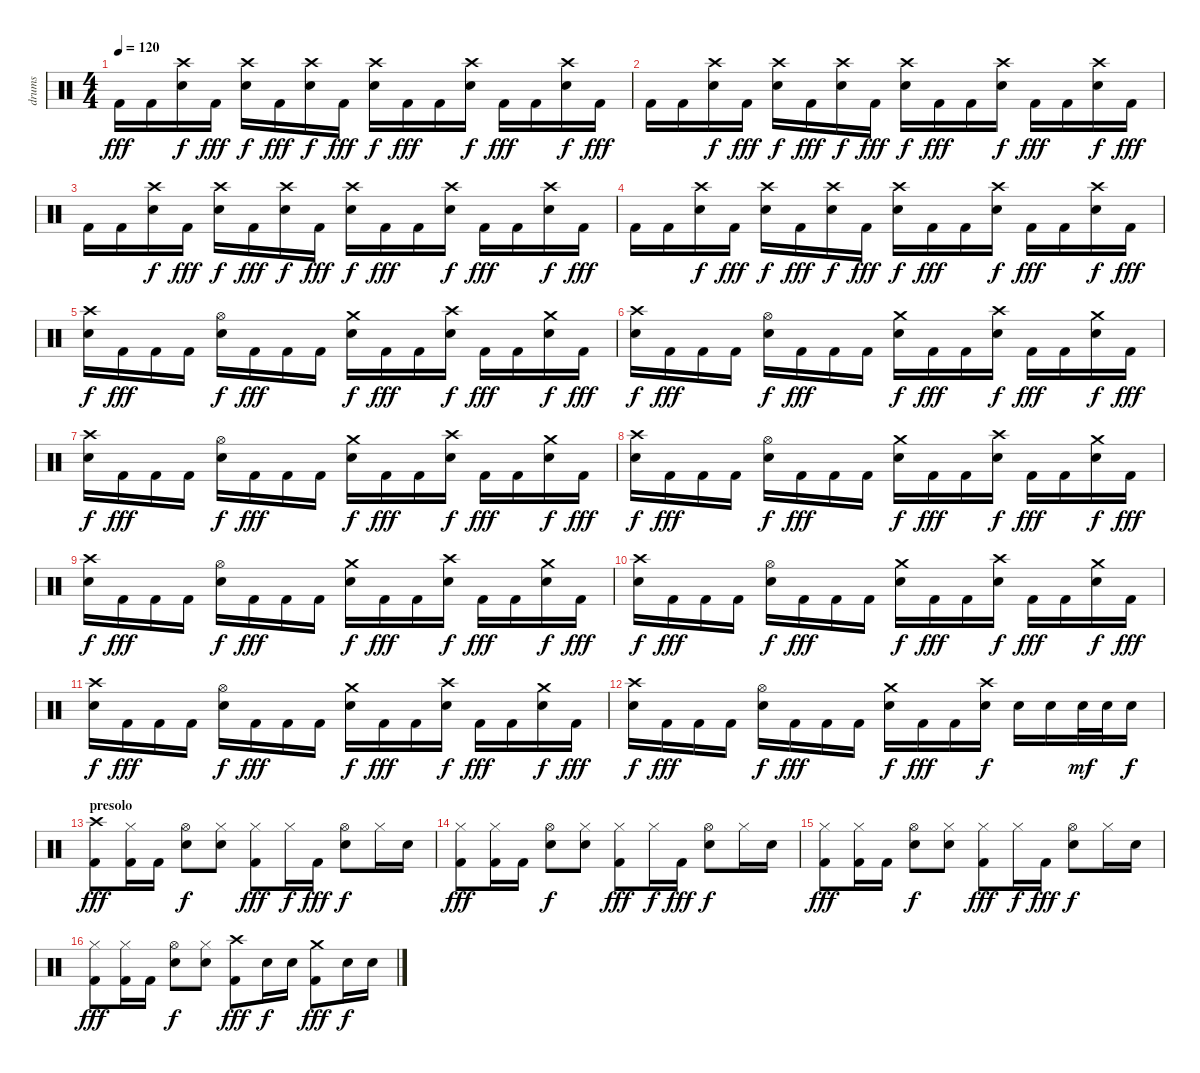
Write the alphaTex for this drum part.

\track ("drums" "drums") {instrument percussion}
\staff {score}
\articulation defaults
\ts (4 4)
\tempo 120
\clef neutral
\ks c "Kick (hit) 2".16{dy fff} "Kick (hit) 2".16
("Crash high (hit)" "Snare (hit) 2").16{dy f} "Kick (hit) 2".16{dy fff} ("Crash high (hit)" "Snare (hit) 2").16{dy f} "Kick (hit) 2".16{dy fff} ("Crash high (hit)" "Snare (hit) 2").16{dy f} "Kick (hit) 2".16{dy fff} ("Crash high (hit)" "Snare (hit) 2").16{dy f} "Kick (hit) 2".16{dy fff} "Kick (hit) 2".16 ("Crash high (hit)" "Snare (hit) 2").16{dy f} "Kick (hit) 2".16{dy fff} "Kick (hit) 2".16 ("Crash high (hit)" "Snare (hit) 2").16{dy f} "Kick (hit) 2".16{dy fff} |
"Kick (hit) 2".16 "Kick (hit) 2".16 ("Crash high (hit)" "Snare (hit) 2").16{dy f} "Kick (hit) 2".16{dy fff} ("Crash high (hit)" "Snare (hit) 2").16{dy f} "Kick (hit) 2".16{dy fff} ("Crash high (hit)" "Snare (hit) 2").16{dy f} "Kick (hit) 2".16{dy fff} ("Crash high (hit)" "Snare (hit) 2").16{dy f} "Kick (hit) 2".16{dy fff} "Kick (hit) 2".16 ("Crash high (hit)" "Snare (hit) 2").16{dy f} "Kick (hit) 2".16{dy fff} "Kick (hit) 2".16 ("Crash high (hit)" "Snare (hit) 2").16{dy f} "Kick (hit) 2".16{dy fff} |
"Kick (hit) 2".16 "Kick (hit) 2".16 ("Crash high (hit)" "Snare (hit) 2").16{dy f} "Kick (hit) 2".16{dy fff} ("Crash high (hit)" "Snare (hit) 2").16{dy f} "Kick (hit) 2".16{dy fff} ("Crash high (hit)" "Snare (hit) 2").16{dy f} "Kick (hit) 2".16{dy fff} ("Crash high (hit)" "Snare (hit) 2").16{dy f} "Kick (hit) 2".16{dy fff} "Kick (hit) 2".16 ("Crash high (hit)" "Snare (hit) 2").16{dy f} "Kick (hit) 2".16{dy fff} "Kick (hit) 2".16 ("Crash high (hit)" "Snare (hit) 2").16{dy f} "Kick (hit) 2".16{dy fff} |
"Kick (hit) 2".16 "Kick (hit) 2".16 ("Crash high (hit)" "Snare (hit) 2").16{dy f} "Kick (hit) 2".16{dy fff} ("Crash high (hit)" "Snare (hit) 2").16{dy f} "Kick (hit) 2".16{dy fff} ("Crash high (hit)" "Snare (hit) 2").16{dy f} "Kick (hit) 2".16{dy fff} ("Crash high (hit)" "Snare (hit) 2").16{dy f} "Kick (hit) 2".16{dy fff} "Kick (hit) 2".16 ("Crash high (hit)" "Snare (hit) 2").16{dy f} "Kick (hit) 2".16{dy fff} "Kick (hit) 2".16 ("Crash high (hit)" "Snare (hit) 2").16{dy f} "Kick (hit) 2".16{dy fff} |
("Crash high (hit)" "Snare (hit) 2").16{dy f} "Kick (hit) 2".16{dy fff} "Kick (hit) 2".16 "Kick (hit) 2".16 ("Hi-Hat (open)" "Snare (hit) 2").16{dy f} "Kick (hit) 2".16{dy fff} "Kick (hit) 2".16 "Kick (hit) 2".16 ("Crash medium (hit)" "Snare (hit) 2").16{dy f} "Kick (hit) 2".16{dy fff} "Kick (hit) 2".16 ("Crash high (hit)" "Snare (hit) 2").16{dy f} "Kick (hit) 2".16{dy fff} "Kick (hit) 2".16 ("Crash medium (hit)" "Snare (hit) 2").16{dy f} "Kick (hit) 2".16{dy fff} |
("Crash high (hit)" "Snare (hit) 2").16{dy f} "Kick (hit) 2".16{dy fff} "Kick (hit) 2".16 "Kick (hit) 2".16 ("Hi-Hat (open)" "Snare (hit) 2").16{dy f} "Kick (hit) 2".16{dy fff} "Kick (hit) 2".16 "Kick (hit) 2".16 ("Crash medium (hit)" "Snare (hit) 2").16{dy f} "Kick (hit) 2".16{dy fff} "Kick (hit) 2".16 ("Crash high (hit)" "Snare (hit) 2").16{dy f} "Kick (hit) 2".16{dy fff} "Kick (hit) 2".16 ("Crash medium (hit)" "Snare (hit) 2").16{dy f} "Kick (hit) 2".16{dy fff} |
("Crash high (hit)" "Snare (hit) 2").16{dy f} "Kick (hit) 2".16{dy fff} "Kick (hit) 2".16 "Kick (hit) 2".16 ("Hi-Hat (open)" "Snare (hit) 2").16{dy f} "Kick (hit) 2".16{dy fff} "Kick (hit) 2".16 "Kick (hit) 2".16 ("Crash medium (hit)" "Snare (hit) 2").16{dy f} "Kick (hit) 2".16{dy fff} "Kick (hit) 2".16 ("Crash high (hit)" "Snare (hit) 2").16{dy f} "Kick (hit) 2".16{dy fff} "Kick (hit) 2".16 ("Crash medium (hit)" "Snare (hit) 2").16{dy f} "Kick (hit) 2".16{dy fff} |
("Crash high (hit)" "Snare (hit) 2").16{dy f} "Kick (hit) 2".16{dy fff} "Kick (hit) 2".16 "Kick (hit) 2".16 ("Hi-Hat (open)" "Snare (hit) 2").16{dy f} "Kick (hit) 2".16{dy fff} "Kick (hit) 2".16 "Kick (hit) 2".16 ("Crash medium (hit)" "Snare (hit) 2").16{dy f} "Kick (hit) 2".16{dy fff} "Kick (hit) 2".16 ("Crash high (hit)" "Snare (hit) 2").16{dy f} "Kick (hit) 2".16{dy fff} "Kick (hit) 2".16 ("Crash medium (hit)" "Snare (hit) 2").16{dy f} "Kick (hit) 2".16{dy fff} |
("Crash high (hit)" "Snare (hit) 2").16{dy f} "Kick (hit) 2".16{dy fff} "Kick (hit) 2".16 "Kick (hit) 2".16 ("Hi-Hat (open)" "Snare (hit) 2").16{dy f} "Kick (hit) 2".16{dy fff} "Kick (hit) 2".16 "Kick (hit) 2".16 ("Crash medium (hit)" "Snare (hit) 2").16{dy f} "Kick (hit) 2".16{dy fff} "Kick (hit) 2".16 ("Crash high (hit)" "Snare (hit) 2").16{dy f} "Kick (hit) 2".16{dy fff} "Kick (hit) 2".16 ("Crash medium (hit)" "Snare (hit) 2").16{dy f} "Kick (hit) 2".16{dy fff} |
("Crash high (hit)" "Snare (hit) 2").16{dy f} "Kick (hit) 2".16{dy fff} "Kick (hit) 2".16 "Kick (hit) 2".16 ("Hi-Hat (open)" "Snare (hit) 2").16{dy f} "Kick (hit) 2".16{dy fff} "Kick (hit) 2".16 "Kick (hit) 2".16 ("Crash medium (hit)" "Snare (hit) 2").16{dy f} "Kick (hit) 2".16{dy fff} "Kick (hit) 2".16 ("Crash high (hit)" "Snare (hit) 2").16{dy f} "Kick (hit) 2".16{dy fff} "Kick (hit) 2".16 ("Crash medium (hit)" "Snare (hit) 2").16{dy f} "Kick (hit) 2".16{dy fff} |
("Crash high (hit)" "Snare (hit) 2").16{dy f} "Kick (hit) 2".16{dy fff} "Kick (hit) 2".16 "Kick (hit) 2".16 ("Hi-Hat (open)" "Snare (hit) 2").16{dy f} "Kick (hit) 2".16{dy fff} "Kick (hit) 2".16 "Kick (hit) 2".16 ("Crash medium (hit)" "Snare (hit) 2").16{dy f} "Kick (hit) 2".16{dy fff} "Kick (hit) 2".16 ("Crash high (hit)" "Snare (hit) 2").16{dy f} "Kick (hit) 2".16{dy fff} "Kick (hit) 2".16 ("Crash medium (hit)" "Snare (hit) 2").16{dy f} "Kick (hit) 2".16{dy fff} |
("Crash high (hit)" "Snare (hit) 2").16{dy f} "Kick (hit) 2".16{dy fff} "Kick (hit) 2".16 "Kick (hit) 2".16 ("Hi-Hat (open)" "Snare (hit) 2").16{dy f} "Kick (hit) 2".16{dy fff} "Kick (hit) 2".16 "Kick (hit) 2".16 ("Crash medium (hit)" "Snare (hit) 2").16{dy f} "Kick (hit) 2".16{dy fff} "Kick (hit) 2".16 ("Crash high (hit)" "Snare (hit) 2").16{dy f} "Snare (hit) 2".16 "Snare (hit) 2".16 "Snare (hit) 2".32{dy mf} "Snare (hit) 2".32 "Snare (hit) 2".16{dy f} |
\section ("" "presolo")
("Crash high (hit)" "Kick (hit) 2").8{dy fff} ("Hi-Hat (closed)" "Kick (hit) 2").16 "Kick (hit) 2".16 ("Hi-Hat (open)" "Snare (hit) 2").8{dy f} ("Hi-Hat (closed)" "Snare (hit) 2").8 ("Hi-Hat (closed)" "Kick (hit) 2").8{dy fff} "Hi-Hat (closed)".16{dy f} "Kick (hit) 2".16{dy fff} ("Hi-Hat (open)" "Snare (hit) 2").8{dy f} "Hi-Hat (closed)".16 "Snare (hit) 2".16 |
("Hi-Hat (closed)" "Kick (hit) 2").8{dy fff} ("Hi-Hat (closed)" "Kick (hit) 2").16 "Kick (hit) 2".16 ("Hi-Hat (open)" "Snare (hit) 2").8{dy f} ("Hi-Hat (closed)" "Snare (hit) 2").8 ("Hi-Hat (closed)" "Kick (hit) 2").8{dy fff} "Hi-Hat (closed)".16{dy f} "Kick (hit) 2".16{dy fff} ("Hi-Hat (open)" "Snare (hit) 2").8{dy f} "Hi-Hat (closed)".16 "Snare (hit) 2".16 |
("Hi-Hat (closed)" "Kick (hit) 2").8{dy fff} ("Hi-Hat (closed)" "Kick (hit) 2").16 "Kick (hit) 2".16 ("Hi-Hat (open)" "Snare (hit) 2").8{dy f} ("Hi-Hat (closed)" "Snare (hit) 2").8 ("Hi-Hat (closed)" "Kick (hit) 2").8{dy fff} "Hi-Hat (closed)".16{dy f} "Kick (hit) 2".16{dy fff} ("Hi-Hat (open)" "Snare (hit) 2").8{dy f} "Hi-Hat (closed)".16 "Snare (hit) 2".16 |
("Hi-Hat (closed)" "Kick (hit) 2").8{dy fff} ("Hi-Hat (closed)" "Kick (hit) 2").16 "Kick (hit) 2".16 ("Hi-Hat (open)" "Snare (hit) 2").8{dy f} ("Hi-Hat (closed)" "Snare (hit) 2").8 ("Crash high (hit)" "Kick (hit) 2").8{dy fff} "Snare (hit) 2".16{dy f} "Snare (hit) 2".16 ("Crash medium (hit)" "Kick (hit) 2").8{dy fff} "Snare (hit) 2".16{dy f} "Snare (hit) 2".16
